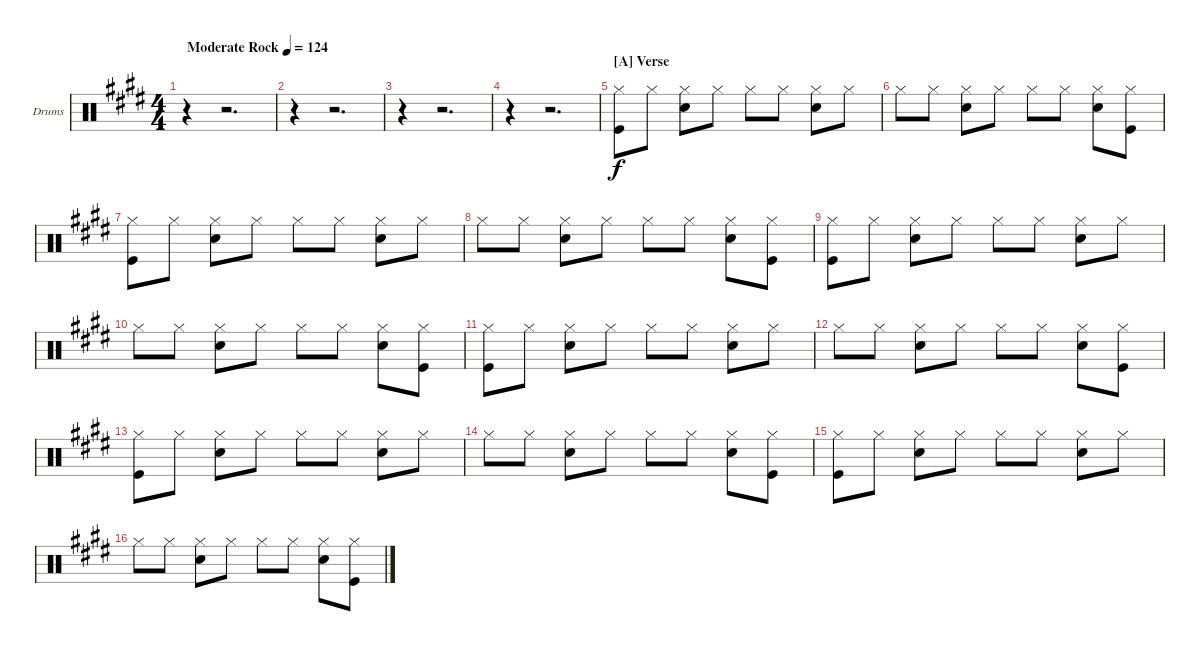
\defaultSystemsLayout 4
\bracketExtendMode groupsimilarinstruments
\firstSystemTrackNameOrientation horizontal
\otherSystemsTrackNameOrientation horizontal
\track ("Drumkit" "Drums") {instrument percussion}
\staff {score}
\articulation defaults
\ts (4 4)
\tempo (124 "Moderate Rock")
\clef neutral
\scale
1.09584
\ks e
r.4{dy f} r.2{d} |
\scale
0.904161 r.4 r.2{d} |
\scale
1.06557 r.4 r.2{d} |
\scale
0.934426 r.4 r.2{d} |
\section ("A" "Verse")
\scale
1.06557 ("Hi-Hat (closed)" "Kick (hit)").8 "Hi-Hat (closed)".8 ("Hi-Hat (closed)" "Snare (hit) 2").8 "Hi-Hat (closed)".8 "Hi-Hat (closed)".8 "Hi-Hat (closed)".8 ("Hi-Hat (closed)" "Snare (hit) 2").8 "Hi-Hat (closed)".8 |
\scale
0.934426 "Hi-Hat (closed)".8 "Hi-Hat (closed)".8 ("Hi-Hat (closed)" "Snare (hit) 2").8 "Hi-Hat (closed)".8 "Hi-Hat (closed)".8 "Hi-Hat (closed)".8 ("Hi-Hat (closed)" "Snare (hit) 2").8 ("Hi-Hat (closed)" "Kick (hit)").8 |
\scale
1.06557 ("Hi-Hat (closed)" "Kick (hit)").8 "Hi-Hat (closed)".8 ("Hi-Hat (closed)" "Snare (hit) 2").8 "Hi-Hat (closed)".8 "Hi-Hat (closed)".8 "Hi-Hat (closed)".8 ("Hi-Hat (closed)" "Snare (hit) 2").8 "Hi-Hat (closed)".8 |
\scale
0.934426 "Hi-Hat (closed)".8 "Hi-Hat (closed)".8 ("Hi-Hat (closed)" "Snare (hit) 2").8 "Hi-Hat (closed)".8 "Hi-Hat (closed)".8 "Hi-Hat (closed)".8 ("Hi-Hat (closed)" "Snare (hit) 2").8 ("Hi-Hat (closed)" "Kick (hit)").8 |
\scale
1.06557 ("Hi-Hat (closed)" "Kick (hit)").8 "Hi-Hat (closed)".8 ("Hi-Hat (closed)" "Snare (hit) 2").8 "Hi-Hat (closed)".8 "Hi-Hat (closed)".8 "Hi-Hat (closed)".8 ("Hi-Hat (closed)" "Snare (hit) 2").8 "Hi-Hat (closed)".8 |
\scale
0.934426 "Hi-Hat (closed)".8 "Hi-Hat (closed)".8 ("Hi-Hat (closed)" "Snare (hit) 2").8 "Hi-Hat (closed)".8 "Hi-Hat (closed)".8 "Hi-Hat (closed)".8 ("Hi-Hat (closed)" "Snare (hit) 2").8 ("Hi-Hat (closed)" "Kick (hit)").8 |
\scale
1.06557 ("Hi-Hat (closed)" "Kick (hit)").8 "Hi-Hat (closed)".8 ("Hi-Hat (closed)" "Snare (hit) 2").8 "Hi-Hat (closed)".8 "Hi-Hat (closed)".8 "Hi-Hat (closed)".8 ("Hi-Hat (closed)" "Snare (hit) 2").8 "Hi-Hat (closed)".8 |
\scale
0.934426 "Hi-Hat (closed)".8 "Hi-Hat (closed)".8 ("Hi-Hat (closed)" "Snare (hit) 2").8 "Hi-Hat (closed)".8 "Hi-Hat (closed)".8 "Hi-Hat (closed)".8 ("Hi-Hat (closed)" "Snare (hit) 2").8 ("Hi-Hat (closed)" "Kick (hit)").8 |
\scale
1.06557 ("Hi-Hat (closed)" "Kick (hit)").8 "Hi-Hat (closed)".8 ("Hi-Hat (closed)" "Snare (hit) 2").8 "Hi-Hat (closed)".8 "Hi-Hat (closed)".8 "Hi-Hat (closed)".8 ("Hi-Hat (closed)" "Snare (hit) 2").8 "Hi-Hat (closed)".8 |
\scale
0.934426 "Hi-Hat (closed)".8 "Hi-Hat (closed)".8 ("Hi-Hat (closed)" "Snare (hit) 2").8 "Hi-Hat (closed)".8 "Hi-Hat (closed)".8 "Hi-Hat (closed)".8 ("Hi-Hat (closed)" "Snare (hit) 2").8 ("Hi-Hat (closed)" "Kick (hit)").8 |
\scale
1.06557 ("Hi-Hat (closed)" "Kick (hit)").8 "Hi-Hat (closed)".8 ("Hi-Hat (closed)" "Snare (hit) 2").8 "Hi-Hat (closed)".8 "Hi-Hat (closed)".8 "Hi-Hat (closed)".8 ("Hi-Hat (closed)" "Snare (hit) 2").8 "Hi-Hat (closed)".8 |
\scale
0.934426 "Hi-Hat (closed)".8 "Hi-Hat (closed)".8 ("Hi-Hat (closed)" "Snare (hit) 2").8 "Hi-Hat (closed)".8 "Hi-Hat (closed)".8 "Hi-Hat (closed)".8 ("Hi-Hat (closed)" "Snare (hit) 2").8 ("Hi-Hat (closed)" "Kick (hit)").8
